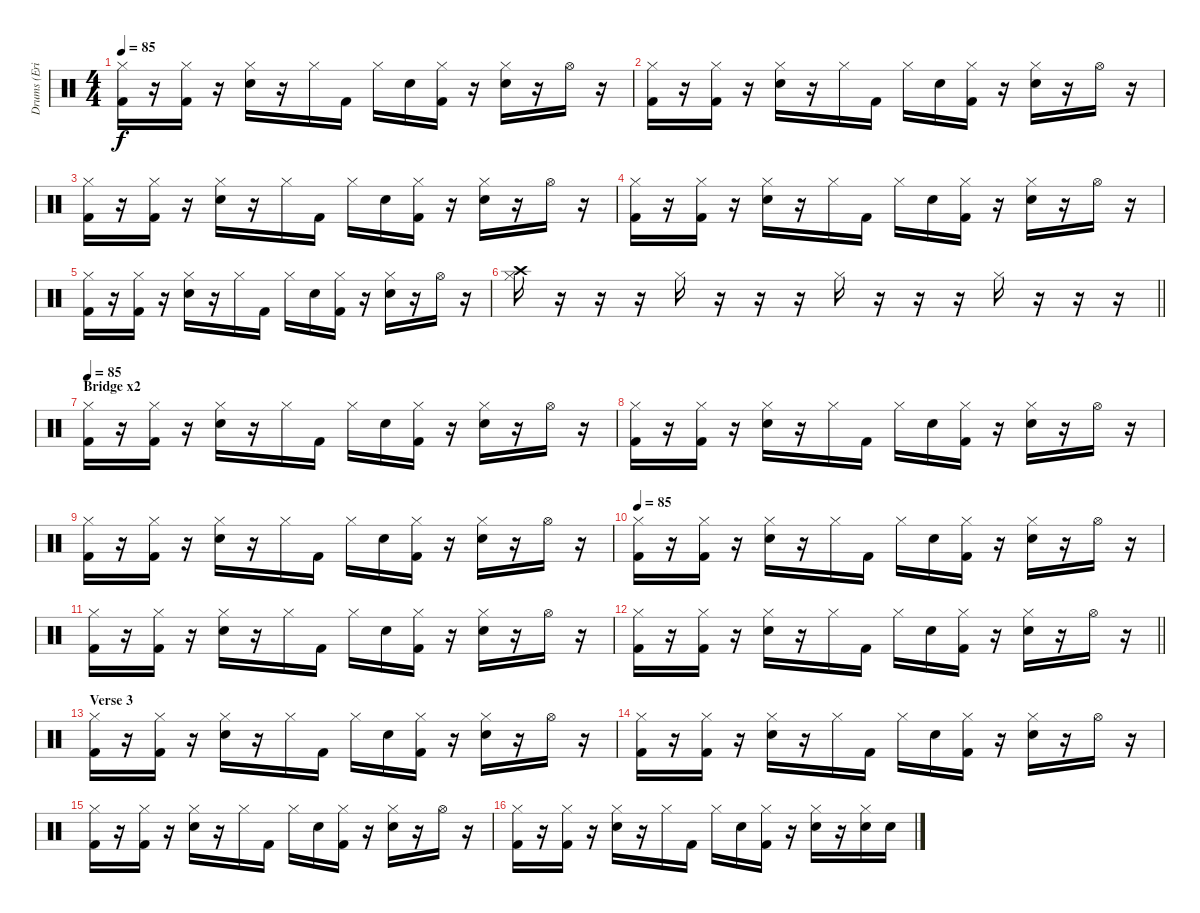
\track ("Drums (Eric Kretz)" "Drums (Eri") {instrument percussion}
\staff {score}
\articulation defaults
\ts (4 4)
\tempo 85
\clef neutral
\ks c
("Hi-Hat (closed)" "Kick (hit) 2").16{dy f} r.16 ("Hi-Hat (closed)" "Kick (hit) 2").16 r.16 ("Hi-Hat (closed)" "Electric Snare (hit)").16 r.16 "Hi-Hat (closed)".16 "Kick (hit) 2".16 "Hi-Hat (closed)".16 "Electric Snare (hit)".16 ("Hi-Hat (closed)" "Kick (hit) 2").16 r.16 ("Hi-Hat (closed)" "Electric Snare (hit)").16 r.16 "Hi-Hat (open)".16 r.16 |
("Hi-Hat (closed)" "Kick (hit) 2").16 r.16 ("Hi-Hat (closed)" "Kick (hit) 2").16 r.16 ("Hi-Hat (closed)" "Electric Snare (hit)").16 r.16 "Hi-Hat (closed)".16 "Kick (hit) 2".16 "Hi-Hat (closed)".16 "Electric Snare (hit)".16 ("Hi-Hat (closed)" "Kick (hit) 2").16 r.16 ("Hi-Hat (closed)" "Electric Snare (hit)").16 r.16 "Hi-Hat (open)".16 r.16 |
("Hi-Hat (closed)" "Kick (hit) 2").16 r.16 ("Hi-Hat (closed)" "Kick (hit) 2").16 r.16 ("Hi-Hat (closed)" "Electric Snare (hit)").16 r.16 "Hi-Hat (closed)".16 "Kick (hit) 2".16 "Hi-Hat (closed)".16 "Electric Snare (hit)".16 ("Hi-Hat (closed)" "Kick (hit) 2").16 r.16 ("Hi-Hat (closed)" "Electric Snare (hit)").16 r.16 "Hi-Hat (open)".16 r.16 |
("Hi-Hat (closed)" "Kick (hit) 2").16 r.16 ("Hi-Hat (closed)" "Kick (hit) 2").16 r.16 ("Hi-Hat (closed)" "Electric Snare (hit)").16 r.16 "Hi-Hat (closed)".16 "Kick (hit) 2".16 "Hi-Hat (closed)".16 "Electric Snare (hit)".16 ("Hi-Hat (closed)" "Kick (hit) 2").16 r.16 ("Hi-Hat (closed)" "Electric Snare (hit)").16 r.16 "Hi-Hat (open)".16 r.16 |
("Hi-Hat (closed)" "Kick (hit) 2").16 r.16 ("Hi-Hat (closed)" "Kick (hit) 2").16 r.16 ("Hi-Hat (closed)" "Electric Snare (hit)").16 r.16 "Hi-Hat (closed)".16 "Kick (hit) 2".16 "Hi-Hat (closed)".16 "Electric Snare (hit)".16 ("Hi-Hat (closed)" "Kick (hit) 2").16 r.16 ("Hi-Hat (closed)" "Electric Snare (hit)").16 r.16 "Hi-Hat (open)".16 r.16 |
\barLineRight lightlight
("Hi-Hat (closed)" "Crash high (hit)").16 r.16 r.16 r.16 "Hi-Hat (closed)".16 r.16 r.16 r.16 "Hi-Hat (closed)".16 r.16 r.16 r.16 "Hi-Hat (closed)".16 r.16 r.16 r.16 |
\section ("" "Bridge x2")
\tempo 85
("Hi-Hat (closed)" "Kick (hit) 2").16{volume 16} r.16 ("Hi-Hat (closed)" "Kick (hit) 2").16 r.16 ("Hi-Hat (closed)" "Electric Snare (hit)").16 r.16 "Hi-Hat (closed)".16 "Kick (hit) 2".16 "Hi-Hat (closed)".16 "Electric Snare (hit)".16 ("Hi-Hat (closed)" "Kick (hit) 2").16 r.16 ("Hi-Hat (closed)" "Electric Snare (hit)").16 r.16 "Hi-Hat (open)".16 r.16 |
("Hi-Hat (closed)" "Kick (hit) 2").16 r.16 ("Hi-Hat (closed)" "Kick (hit) 2").16 r.16 ("Hi-Hat (closed)" "Electric Snare (hit)").16 r.16 "Hi-Hat (closed)".16 "Kick (hit) 2".16 "Hi-Hat (closed)".16 "Electric Snare (hit)".16 ("Hi-Hat (closed)" "Kick (hit) 2").16 r.16 ("Hi-Hat (closed)" "Electric Snare (hit)").16 r.16 "Hi-Hat (open)".16 r.16 |
("Hi-Hat (closed)" "Kick (hit) 2").16 r.16 ("Hi-Hat (closed)" "Kick (hit) 2").16 r.16 ("Hi-Hat (closed)" "Electric Snare (hit)").16 r.16 "Hi-Hat (closed)".16 "Kick (hit) 2".16 "Hi-Hat (closed)".16 "Electric Snare (hit)".16 ("Hi-Hat (closed)" "Kick (hit) 2").16 r.16 ("Hi-Hat (closed)" "Electric Snare (hit)").16 r.16 "Hi-Hat (open)".16 r.16 |
\tempo 85
("Hi-Hat (closed)" "Kick (hit) 2").16{volume 16} r.16 ("Hi-Hat (closed)" "Kick (hit) 2").16 r.16 ("Hi-Hat (closed)" "Electric Snare (hit)").16 r.16 "Hi-Hat (closed)".16 "Kick (hit) 2".16 "Hi-Hat (closed)".16 "Electric Snare (hit)".16 ("Hi-Hat (closed)" "Kick (hit) 2").16 r.16 ("Hi-Hat (closed)" "Electric Snare (hit)").16 r.16 "Hi-Hat (open)".16 r.16 |
("Hi-Hat (closed)" "Kick (hit) 2").16 r.16 ("Hi-Hat (closed)" "Kick (hit) 2").16 r.16 ("Hi-Hat (closed)" "Electric Snare (hit)").16 r.16 "Hi-Hat (closed)".16 "Kick (hit) 2".16 "Hi-Hat (closed)".16 "Electric Snare (hit)".16 ("Hi-Hat (closed)" "Kick (hit) 2").16 r.16 ("Hi-Hat (closed)" "Electric Snare (hit)").16 r.16 "Hi-Hat (open)".16 r.16 |
\barLineRight lightlight
("Hi-Hat (closed)" "Kick (hit) 2").16 r.16 ("Hi-Hat (closed)" "Kick (hit) 2").16 r.16 ("Hi-Hat (closed)" "Electric Snare (hit)").16 r.16 "Hi-Hat (closed)".16 "Kick (hit) 2".16 "Hi-Hat (closed)".16 "Electric Snare (hit)".16 ("Hi-Hat (closed)" "Kick (hit) 2").16 r.16 ("Hi-Hat (closed)" "Electric Snare (hit)").16 r.16 "Hi-Hat (open)".16 r.16 |
\section ("" "Verse 3")
("Hi-Hat (closed)" "Kick (hit) 2").16 r.16 ("Hi-Hat (closed)" "Kick (hit) 2").16 r.16 ("Hi-Hat (closed)" "Electric Snare (hit)").16 r.16 "Hi-Hat (closed)".16 "Kick (hit) 2".16 "Hi-Hat (closed)".16 "Electric Snare (hit)".16 ("Hi-Hat (closed)" "Kick (hit) 2").16 r.16 ("Hi-Hat (closed)" "Electric Snare (hit)").16 r.16 "Hi-Hat (open)".16 r.16 |
("Hi-Hat (closed)" "Kick (hit) 2").16 r.16 ("Hi-Hat (closed)" "Kick (hit) 2").16 r.16 ("Hi-Hat (closed)" "Electric Snare (hit)").16 r.16 "Hi-Hat (closed)".16 "Kick (hit) 2".16 "Hi-Hat (closed)".16 "Electric Snare (hit)".16 ("Hi-Hat (closed)" "Kick (hit) 2").16 r.16 ("Hi-Hat (closed)" "Electric Snare (hit)").16 r.16 "Hi-Hat (open)".16 r.16 |
("Hi-Hat (closed)" "Kick (hit) 2").16 r.16 ("Hi-Hat (closed)" "Kick (hit) 2").16 r.16 ("Hi-Hat (closed)" "Electric Snare (hit)").16 r.16 "Hi-Hat (closed)".16 "Kick (hit) 2".16 "Hi-Hat (closed)".16 "Electric Snare (hit)".16 ("Hi-Hat (closed)" "Kick (hit) 2").16 r.16 ("Hi-Hat (closed)" "Electric Snare (hit)").16 r.16 "Hi-Hat (open)".16 r.16 |
("Hi-Hat (closed)" "Kick (hit) 2").16 r.16 ("Hi-Hat (closed)" "Kick (hit) 2").16 r.16 ("Hi-Hat (closed)" "Electric Snare (hit)").16 r.16 "Hi-Hat (closed)".16 "Kick (hit) 2".16 "Hi-Hat (closed)".16 "Electric Snare (hit)".16 ("Hi-Hat (closed)" "Kick (hit) 2").16 r.16 ("Hi-Hat (closed)" "Electric Snare (hit)").16 r.16 ("Hi-Hat (closed)" "Electric Snare (hit)").16 "Electric Snare (hit)".16
